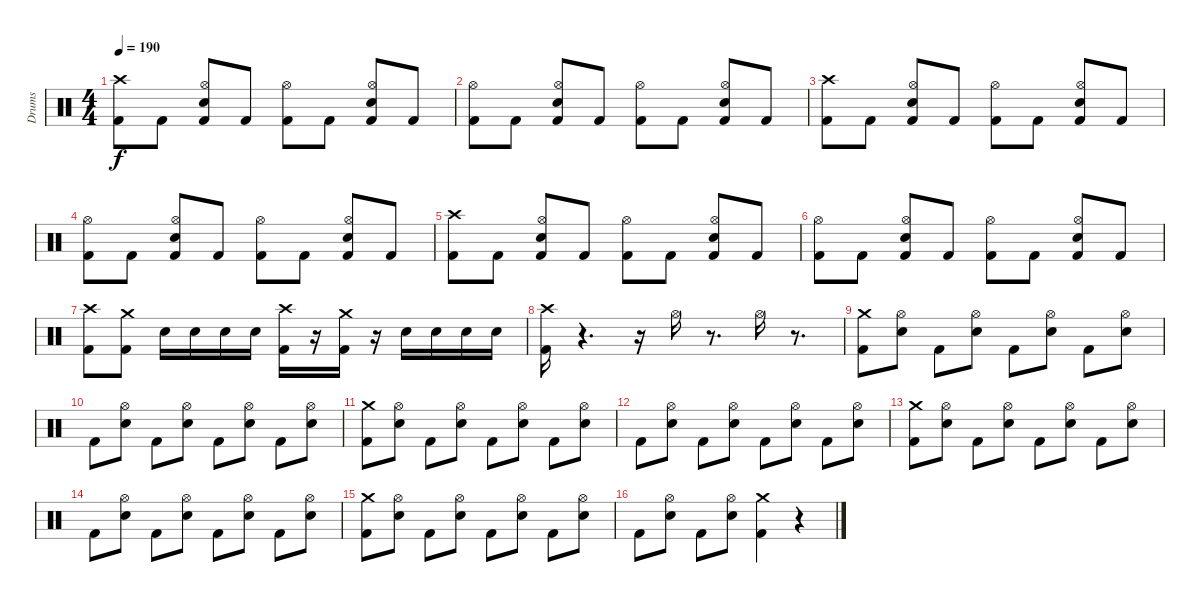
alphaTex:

\track ("Drums" "Drums") {instrument percussion}
\staff {score}
\articulation defaults
\ts (4 4)
\tempo 190
\clef neutral
\ks c
("Crash high (hit)" "Kick (hit) 2").8{dy f} "Kick (hit) 2".8 ("Hi-Hat (open)" "Electric Snare (hit)" "Kick (hit) 2").8 "Kick (hit) 2".8 ("Hi-Hat (open)" "Kick (hit) 2").8 "Kick (hit) 2".8 ("Hi-Hat (open)" "Electric Snare (hit)" "Kick (hit) 2").8 "Kick (hit) 2".8 |
("Hi-Hat (open)" "Kick (hit) 2").8 "Kick (hit) 2".8 ("Hi-Hat (open)" "Electric Snare (hit)" "Kick (hit) 2").8 "Kick (hit) 2".8 ("Hi-Hat (open)" "Kick (hit) 2").8 "Kick (hit) 2".8 ("Hi-Hat (open)" "Electric Snare (hit)" "Kick (hit) 2").8 "Kick (hit) 2".8 |
("Crash high (hit)" "Kick (hit) 2").8 "Kick (hit) 2".8 ("Hi-Hat (open)" "Electric Snare (hit)" "Kick (hit) 2").8 "Kick (hit) 2".8 ("Hi-Hat (open)" "Kick (hit) 2").8 "Kick (hit) 2".8 ("Hi-Hat (open)" "Electric Snare (hit)" "Kick (hit) 2").8 "Kick (hit) 2".8 |
("Hi-Hat (open)" "Kick (hit) 2").8 "Kick (hit) 2".8 ("Hi-Hat (open)" "Electric Snare (hit)" "Kick (hit) 2").8 "Kick (hit) 2".8 ("Hi-Hat (open)" "Kick (hit) 2").8 "Kick (hit) 2".8 ("Hi-Hat (open)" "Electric Snare (hit)" "Kick (hit) 2").8 "Kick (hit) 2".8 |
("Crash high (hit)" "Kick (hit) 2").8 "Kick (hit) 2".8 ("Hi-Hat (open)" "Electric Snare (hit)" "Kick (hit) 2").8 "Kick (hit) 2".8 ("Hi-Hat (open)" "Kick (hit) 2").8 "Kick (hit) 2".8 ("Hi-Hat (open)" "Electric Snare (hit)" "Kick (hit) 2").8 "Kick (hit) 2".8 |
("Hi-Hat (open)" "Kick (hit) 2").8 "Kick (hit) 2".8 ("Hi-Hat (open)" "Electric Snare (hit)" "Kick (hit) 2").8 "Kick (hit) 2".8 ("Hi-Hat (open)" "Kick (hit) 2").8 "Kick (hit) 2".8 ("Hi-Hat (open)" "Electric Snare (hit)" "Kick (hit) 2").8 "Kick (hit) 2".8 |
("Crash high (hit)" "Kick (hit) 2").8 ("Crash medium (hit)" "Kick (hit) 2").8 "Electric Snare (hit)".16 "Electric Snare (hit)".16 "Electric Snare (hit)".16 "Electric Snare (hit)".16 ("Crash high (hit)" "Kick (hit) 2").16 r.16 ("Crash medium (hit)" "Kick (hit) 2").16 r.16 "Electric Snare (hit)".16 "Electric Snare (hit)".16 "Electric Snare (hit)".16 "Electric Snare (hit)".16 |
("Crash high (hit)" "Kick (hit) 2").16 r.4{d} r.16 "Hi-Hat (open)".16 r.8{d} "Hi-Hat (open)".16 r.8{d} |
("Kick (hit) 2" "Crash medium (hit)").8 ("Hi-Hat (open)" "Electric Snare (hit)").8 "Kick (hit) 2".8 ("Hi-Hat (open)" "Electric Snare (hit)").8 "Kick (hit) 2".8 ("Hi-Hat (open)" "Electric Snare (hit)").8 "Kick (hit) 2".8 ("Hi-Hat (open)" "Electric Snare (hit)").8 |
"Kick (hit) 2".8 ("Hi-Hat (open)" "Electric Snare (hit)").8 "Kick (hit) 2".8 ("Hi-Hat (open)" "Electric Snare (hit)").8 "Kick (hit) 2".8 ("Hi-Hat (open)" "Electric Snare (hit)").8 "Kick (hit) 2".8 ("Hi-Hat (open)" "Electric Snare (hit)").8 |
("Kick (hit) 2" "Crash medium (hit)").8 ("Hi-Hat (open)" "Electric Snare (hit)").8 "Kick (hit) 2".8 ("Hi-Hat (open)" "Electric Snare (hit)").8 "Kick (hit) 2".8 ("Hi-Hat (open)" "Electric Snare (hit)").8 "Kick (hit) 2".8 ("Hi-Hat (open)" "Electric Snare (hit)").8 |
"Kick (hit) 2".8 ("Hi-Hat (open)" "Electric Snare (hit)").8 "Kick (hit) 2".8 ("Hi-Hat (open)" "Electric Snare (hit)").8 "Kick (hit) 2".8 ("Hi-Hat (open)" "Electric Snare (hit)").8 "Kick (hit) 2".8 ("Hi-Hat (open)" "Electric Snare (hit)").8 |
("Kick (hit) 2" "Crash medium (hit)").8 ("Hi-Hat (open)" "Electric Snare (hit)").8 "Kick (hit) 2".8 ("Hi-Hat (open)" "Electric Snare (hit)").8 "Kick (hit) 2".8 ("Hi-Hat (open)" "Electric Snare (hit)").8 "Kick (hit) 2".8 ("Hi-Hat (open)" "Electric Snare (hit)").8 |
"Kick (hit) 2".8 ("Hi-Hat (open)" "Electric Snare (hit)").8 "Kick (hit) 2".8 ("Hi-Hat (open)" "Electric Snare (hit)").8 "Kick (hit) 2".8 ("Hi-Hat (open)" "Electric Snare (hit)").8 "Kick (hit) 2".8 ("Hi-Hat (open)" "Electric Snare (hit)").8 |
("Kick (hit) 2" "Crash medium (hit)").8 ("Hi-Hat (open)" "Electric Snare (hit)").8 "Kick (hit) 2".8 ("Hi-Hat (open)" "Electric Snare (hit)").8 "Kick (hit) 2".8 ("Hi-Hat (open)" "Electric Snare (hit)").8 "Kick (hit) 2".8 ("Hi-Hat (open)" "Electric Snare (hit)").8 |
"Kick (hit) 2".8 ("Hi-Hat (open)" "Electric Snare (hit)").8 "Kick (hit) 2".8 ("Hi-Hat (open)" "Electric Snare (hit)").8 ("Crash medium (hit)" "Kick (hit) 2").4 r.4
